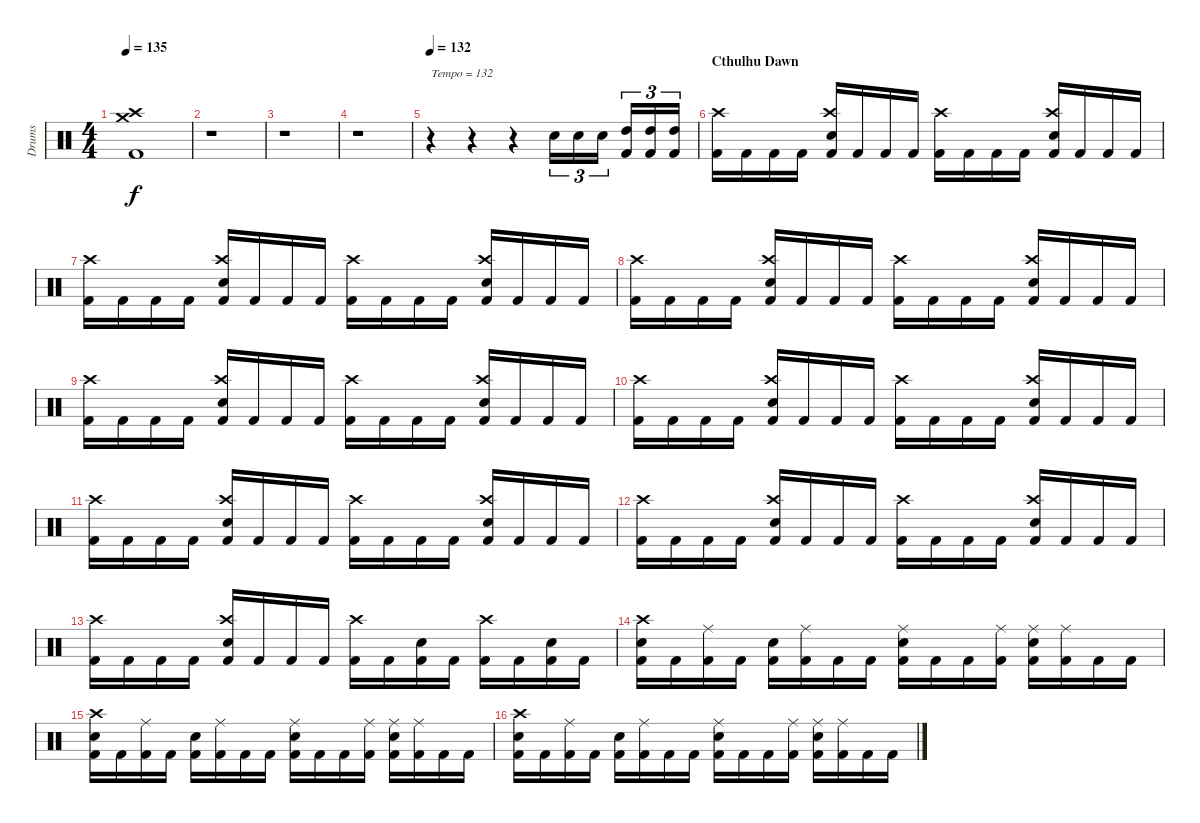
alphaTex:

\track ("Drums" "Drums") {instrument percussion}
\staff {score}
\articulation defaults
\ts (4 4)
\tempo 135
\clef neutral
\ks c
("Kick (hit) 2" "Crash high (hit)" "Crash medium (hit)").1{dy f} |
r.1 |
r.1 |
r.1 |
\tempo 132
r.4{txt "Tempo = 132"} r.4 r.4 "Snare (hit) 2".16{tu (3 2)} "Snare (hit) 2".16{tu (3 2)} "Snare (hit) 2".16{tu (3 2)} ("Kick (hit) 2" "High Tom (hit)").16{tu (3 2)} ("Kick (hit) 2" "High Tom (hit)").16{tu (3 2)} ("Kick (hit) 2" "High Tom (hit)").16{tu (3 2)} |
\section ("" "Cthulhu Dawn")
("Kick (hit) 2" "Crash high (hit)").16 "Kick (hit) 2".16 "Kick (hit) 2".16 "Kick (hit) 2".16 ("Kick (hit) 2" "Snare (hit) 2" "Crash high (hit)").16 "Kick (hit) 2".16 "Kick (hit) 2".16 "Kick (hit) 2".16 ("Kick (hit) 2" "Crash high (hit)").16 "Kick (hit) 2".16 "Kick (hit) 2".16 "Kick (hit) 2".16 ("Kick (hit) 2" "Snare (hit) 2" "Crash high (hit)").16 "Kick (hit) 2".16 "Kick (hit) 2".16 "Kick (hit) 2".16 |
("Kick (hit) 2" "Crash high (hit)").16 "Kick (hit) 2".16 "Kick (hit) 2".16 "Kick (hit) 2".16 ("Kick (hit) 2" "Snare (hit) 2" "Crash high (hit)").16 "Kick (hit) 2".16 "Kick (hit) 2".16 "Kick (hit) 2".16 ("Kick (hit) 2" "Crash high (hit)").16 "Kick (hit) 2".16 "Kick (hit) 2".16 "Kick (hit) 2".16 ("Kick (hit) 2" "Snare (hit) 2" "Crash high (hit)").16 "Kick (hit) 2".16 "Kick (hit) 2".16 "Kick (hit) 2".16 |
("Kick (hit) 2" "Crash high (hit)").16 "Kick (hit) 2".16 "Kick (hit) 2".16 "Kick (hit) 2".16 ("Kick (hit) 2" "Snare (hit) 2" "Crash high (hit)").16 "Kick (hit) 2".16 "Kick (hit) 2".16 "Kick (hit) 2".16 ("Kick (hit) 2" "Crash high (hit)").16 "Kick (hit) 2".16 "Kick (hit) 2".16 "Kick (hit) 2".16 ("Kick (hit) 2" "Snare (hit) 2" "Crash high (hit)").16 "Kick (hit) 2".16 "Kick (hit) 2".16 "Kick (hit) 2".16 |
("Kick (hit) 2" "Crash high (hit)").16 "Kick (hit) 2".16 "Kick (hit) 2".16 "Kick (hit) 2".16 ("Kick (hit) 2" "Snare (hit) 2" "Crash high (hit)").16 "Kick (hit) 2".16 "Kick (hit) 2".16 "Kick (hit) 2".16 ("Kick (hit) 2" "Crash high (hit)").16 "Kick (hit) 2".16 "Kick (hit) 2".16 "Kick (hit) 2".16 ("Kick (hit) 2" "Snare (hit) 2" "Crash high (hit)").16 "Kick (hit) 2".16 "Kick (hit) 2".16 "Kick (hit) 2".16 |
("Kick (hit) 2" "Crash high (hit)").16 "Kick (hit) 2".16 "Kick (hit) 2".16 "Kick (hit) 2".16 ("Kick (hit) 2" "Snare (hit) 2" "Crash high (hit)").16 "Kick (hit) 2".16 "Kick (hit) 2".16 "Kick (hit) 2".16 ("Kick (hit) 2" "Crash high (hit)").16 "Kick (hit) 2".16 "Kick (hit) 2".16 "Kick (hit) 2".16 ("Kick (hit) 2" "Snare (hit) 2" "Crash high (hit)").16 "Kick (hit) 2".16 "Kick (hit) 2".16 "Kick (hit) 2".16 |
("Kick (hit) 2" "Crash high (hit)").16 "Kick (hit) 2".16 "Kick (hit) 2".16 "Kick (hit) 2".16 ("Kick (hit) 2" "Snare (hit) 2" "Crash high (hit)").16 "Kick (hit) 2".16 "Kick (hit) 2".16 "Kick (hit) 2".16 ("Kick (hit) 2" "Crash high (hit)").16 "Kick (hit) 2".16 "Kick (hit) 2".16 "Kick (hit) 2".16 ("Kick (hit) 2" "Snare (hit) 2" "Crash high (hit)").16 "Kick (hit) 2".16 "Kick (hit) 2".16 "Kick (hit) 2".16 |
("Kick (hit) 2" "Crash high (hit)").16 "Kick (hit) 2".16 "Kick (hit) 2".16 "Kick (hit) 2".16 ("Kick (hit) 2" "Snare (hit) 2" "Crash high (hit)").16 "Kick (hit) 2".16 "Kick (hit) 2".16 "Kick (hit) 2".16 ("Kick (hit) 2" "Crash high (hit)").16 "Kick (hit) 2".16 "Kick (hit) 2".16 "Kick (hit) 2".16 ("Kick (hit) 2" "Snare (hit) 2" "Crash high (hit)").16 "Kick (hit) 2".16 "Kick (hit) 2".16 "Kick (hit) 2".16 |
("Kick (hit) 2" "Crash high (hit)").16 "Kick (hit) 2".16 "Kick (hit) 2".16 "Kick (hit) 2".16 ("Kick (hit) 2" "Snare (hit) 2" "Crash high (hit)").16 "Kick (hit) 2".16 "Kick (hit) 2".16 "Kick (hit) 2".16 ("Kick (hit) 2" "Crash high (hit)").16 "Kick (hit) 2".16 ("Kick (hit) 2" "Snare (hit) 2").16 "Kick (hit) 2".16 ("Kick (hit) 2" "Crash high (hit)").16 "Kick (hit) 2".16 ("Kick (hit) 2" "Snare (hit) 2").16 "Kick (hit) 2".16 |
("Kick (hit) 2" "Snare (hit) 2" "Crash high (hit)").16 "Kick (hit) 2".16 ("Kick (hit) 2" "Ride (middle)").16 "Kick (hit) 2".16 ("Kick (hit) 2" "Snare (hit) 2").16 ("Kick (hit) 2" "Ride (middle)").16 "Kick (hit) 2".16 "Kick (hit) 2".16 ("Kick (hit) 2" "Snare (hit) 2" "Ride (middle)").16 "Kick (hit) 2".16 "Kick (hit) 2".16 ("Kick (hit) 2" "Ride (middle)").16 ("Kick (hit) 2" "Snare (hit) 2" "Ride (middle)").16 ("Kick (hit) 2" "Ride (middle)").16 "Kick (hit) 2".16 "Kick (hit) 2".16 |
("Kick (hit) 2" "Snare (hit) 2" "Crash high (hit)").16 "Kick (hit) 2".16 ("Kick (hit) 2" "Ride (middle)").16 "Kick (hit) 2".16 ("Kick (hit) 2" "Snare (hit) 2").16 ("Kick (hit) 2" "Ride (middle)").16 "Kick (hit) 2".16 "Kick (hit) 2".16 ("Kick (hit) 2" "Snare (hit) 2" "Ride (middle)").16 "Kick (hit) 2".16 "Kick (hit) 2".16 ("Kick (hit) 2" "Ride (middle)").16 ("Kick (hit) 2" "Snare (hit) 2" "Ride (middle)").16 ("Kick (hit) 2" "Ride (middle)").16 "Kick (hit) 2".16 "Kick (hit) 2".16 |
("Kick (hit) 2" "Snare (hit) 2" "Crash high (hit)").16 "Kick (hit) 2".16 ("Kick (hit) 2" "Ride (middle)").16 "Kick (hit) 2".16 ("Kick (hit) 2" "Snare (hit) 2").16 ("Kick (hit) 2" "Ride (middle)").16 "Kick (hit) 2".16 "Kick (hit) 2".16 ("Kick (hit) 2" "Snare (hit) 2" "Ride (middle)").16 "Kick (hit) 2".16 "Kick (hit) 2".16 ("Kick (hit) 2" "Ride (middle)").16 ("Kick (hit) 2" "Snare (hit) 2" "Ride (middle)").16 ("Kick (hit) 2" "Ride (middle)").16 "Kick (hit) 2".16 "Kick (hit) 2".16
